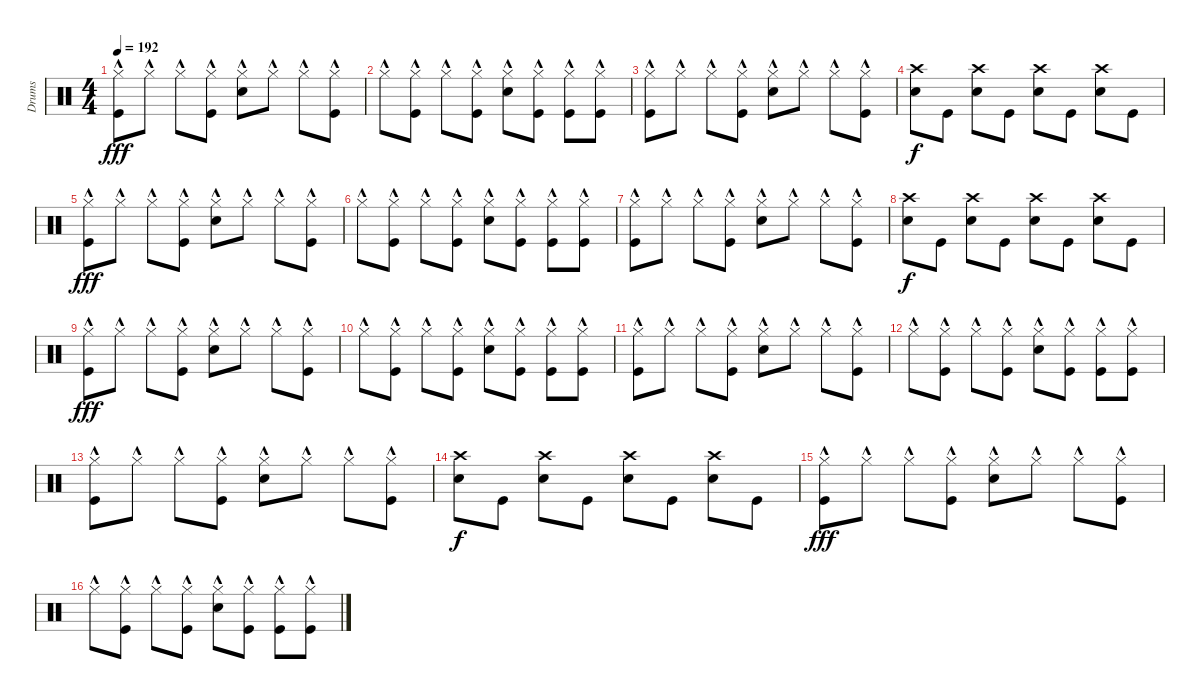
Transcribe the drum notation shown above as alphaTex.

\track ("Drums" "Drums") {instrument percussion}
\staff {score}
\articulation defaults
\ts (4 4)
\tempo 192
\clef neutral
\ks c
("Kick (hit)"{hac} "Hi-Hat (closed)"{hac}).8{dy fff} "Hi-Hat (closed)"{hac}.8 "Hi-Hat (closed)"{hac}.8 ("Kick (hit)"{hac} "Hi-Hat (closed)"{hac}).8 ("Snare (hit) 2"{hac} "Hi-Hat (closed)"{hac}).8 "Hi-Hat (closed)"{hac}.8 "Hi-Hat (closed)"{hac}.8 ("Kick (hit)"{hac} "Hi-Hat (closed)"{hac}).8 |
"Hi-Hat (closed)"{hac}.8 ("Kick (hit)"{hac} "Hi-Hat (closed)"{hac}).8 "Hi-Hat (closed)"{hac}.8 ("Kick (hit)"{hac} "Hi-Hat (closed)"{hac}).8 ("Snare (hit) 2"{hac} "Hi-Hat (closed)"{hac}).8 ("Kick (hit)"{hac} "Hi-Hat (closed)"{hac}).8 ("Kick (hit)" "Hi-Hat (closed)"{hac}).8 ("Kick (hit)" "Hi-Hat (closed)"{hac}).8 |
("Kick (hit)"{hac} "Hi-Hat (closed)"{hac}).8 "Hi-Hat (closed)"{hac}.8 "Hi-Hat (closed)"{hac}.8 ("Kick (hit)"{hac} "Hi-Hat (closed)"{hac}).8 ("Snare (hit) 2"{hac} "Hi-Hat (closed)"{hac}).8 "Hi-Hat (closed)"{hac}.8 "Hi-Hat (closed)"{hac}.8 ("Kick (hit)"{hac} "Hi-Hat (closed)"{hac}).8 |
("Crash high (hit)" "Snare (hit) 2").8{dy f} "Kick (hit)".8 ("Crash high (hit)" "Snare (hit) 2").8 "Kick (hit)".8 ("Crash high (hit)" "Snare (hit) 2").8 "Kick (hit)".8 ("Snare (hit) 2" "Crash high (hit)").8 "Kick (hit)".8 |
("Kick (hit)"{hac} "Hi-Hat (closed)"{hac}).8{dy fff} "Hi-Hat (closed)"{hac}.8 "Hi-Hat (closed)"{hac}.8 ("Kick (hit)"{hac} "Hi-Hat (closed)"{hac}).8 ("Snare (hit) 2"{hac} "Hi-Hat (closed)"{hac}).8 "Hi-Hat (closed)"{hac}.8 "Hi-Hat (closed)"{hac}.8 ("Kick (hit)"{hac} "Hi-Hat (closed)"{hac}).8 |
"Hi-Hat (closed)"{hac}.8 ("Kick (hit)"{hac} "Hi-Hat (closed)"{hac}).8 "Hi-Hat (closed)"{hac}.8 ("Kick (hit)"{hac} "Hi-Hat (closed)"{hac}).8 ("Snare (hit) 2"{hac} "Hi-Hat (closed)"{hac}).8 ("Kick (hit)"{hac} "Hi-Hat (closed)"{hac}).8 ("Kick (hit)" "Hi-Hat (closed)"{hac}).8 ("Kick (hit)" "Hi-Hat (closed)"{hac}).8 |
("Kick (hit)"{hac} "Hi-Hat (closed)"{hac}).8 "Hi-Hat (closed)"{hac}.8 "Hi-Hat (closed)"{hac}.8 ("Kick (hit)"{hac} "Hi-Hat (closed)"{hac}).8 ("Snare (hit) 2"{hac} "Hi-Hat (closed)"{hac}).8 "Hi-Hat (closed)"{hac}.8 "Hi-Hat (closed)"{hac}.8 ("Kick (hit)"{hac} "Hi-Hat (closed)"{hac}).8 |
("Crash high (hit)" "Snare (hit) 2").8{dy f} "Kick (hit)".8 ("Crash high (hit)" "Snare (hit) 2").8 "Kick (hit)".8 ("Crash high (hit)" "Snare (hit) 2").8 "Kick (hit)".8 ("Snare (hit) 2" "Crash high (hit)").8 "Kick (hit)".8 |
("Kick (hit)"{hac} "Hi-Hat (closed)"{hac}).8{dy fff} "Hi-Hat (closed)"{hac}.8 "Hi-Hat (closed)"{hac}.8 ("Kick (hit)"{hac} "Hi-Hat (closed)"{hac}).8 ("Snare (hit) 2"{hac} "Hi-Hat (closed)"{hac}).8 "Hi-Hat (closed)"{hac}.8 "Hi-Hat (closed)"{hac}.8 ("Kick (hit)"{hac} "Hi-Hat (closed)"{hac}).8 |
"Hi-Hat (closed)"{hac}.8 ("Kick (hit)"{hac} "Hi-Hat (closed)"{hac}).8 "Hi-Hat (closed)"{hac}.8 ("Kick (hit)"{hac} "Hi-Hat (closed)"{hac}).8 ("Snare (hit) 2"{hac} "Hi-Hat (closed)"{hac}).8 ("Kick (hit)"{hac} "Hi-Hat (closed)"{hac}).8 ("Kick (hit)" "Hi-Hat (closed)"{hac}).8 ("Kick (hit)" "Hi-Hat (closed)"{hac}).8 |
("Kick (hit)"{hac} "Hi-Hat (closed)"{hac}).8 "Hi-Hat (closed)"{hac}.8 "Hi-Hat (closed)"{hac}.8 ("Kick (hit)"{hac} "Hi-Hat (closed)"{hac}).8 ("Snare (hit) 2"{hac} "Hi-Hat (closed)"{hac}).8 "Hi-Hat (closed)"{hac}.8 "Hi-Hat (closed)"{hac}.8 ("Kick (hit)"{hac} "Hi-Hat (closed)"{hac}).8 |
"Hi-Hat (closed)"{hac}.8 ("Kick (hit)"{hac} "Hi-Hat (closed)"{hac}).8 "Hi-Hat (closed)"{hac}.8 ("Kick (hit)"{hac} "Hi-Hat (closed)"{hac}).8 ("Snare (hit) 2"{hac} "Hi-Hat (closed)"{hac}).8 ("Kick (hit)"{hac} "Hi-Hat (closed)"{hac}).8 ("Kick (hit)" "Hi-Hat (closed)"{hac}).8 ("Kick (hit)" "Hi-Hat (closed)"{hac}).8 |
("Kick (hit)"{hac} "Hi-Hat (closed)"{hac}).8 "Hi-Hat (closed)"{hac}.8 "Hi-Hat (closed)"{hac}.8 ("Kick (hit)"{hac} "Hi-Hat (closed)"{hac}).8 ("Snare (hit) 2"{hac} "Hi-Hat (closed)"{hac}).8 "Hi-Hat (closed)"{hac}.8 "Hi-Hat (closed)"{hac}.8 ("Kick (hit)"{hac} "Hi-Hat (closed)"{hac}).8 |
("Crash high (hit)" "Snare (hit) 2").8{dy f} "Kick (hit)".8 ("Crash high (hit)" "Snare (hit) 2").8 "Kick (hit)".8 ("Crash high (hit)" "Snare (hit) 2").8 "Kick (hit)".8 ("Snare (hit) 2" "Crash high (hit)").8 "Kick (hit)".8 |
("Kick (hit)"{hac} "Hi-Hat (closed)"{hac}).8{dy fff} "Hi-Hat (closed)"{hac}.8 "Hi-Hat (closed)"{hac}.8 ("Kick (hit)"{hac} "Hi-Hat (closed)"{hac}).8 ("Snare (hit) 2"{hac} "Hi-Hat (closed)"{hac}).8 "Hi-Hat (closed)"{hac}.8 "Hi-Hat (closed)"{hac}.8 ("Kick (hit)"{hac} "Hi-Hat (closed)"{hac}).8 |
"Hi-Hat (closed)"{hac}.8 ("Kick (hit)"{hac} "Hi-Hat (closed)"{hac}).8 "Hi-Hat (closed)"{hac}.8 ("Kick (hit)"{hac} "Hi-Hat (closed)"{hac}).8 ("Snare (hit) 2"{hac} "Hi-Hat (closed)"{hac}).8 ("Kick (hit)"{hac} "Hi-Hat (closed)"{hac}).8 ("Kick (hit)" "Hi-Hat (closed)"{hac}).8 ("Kick (hit)" "Hi-Hat (closed)"{hac}).8
